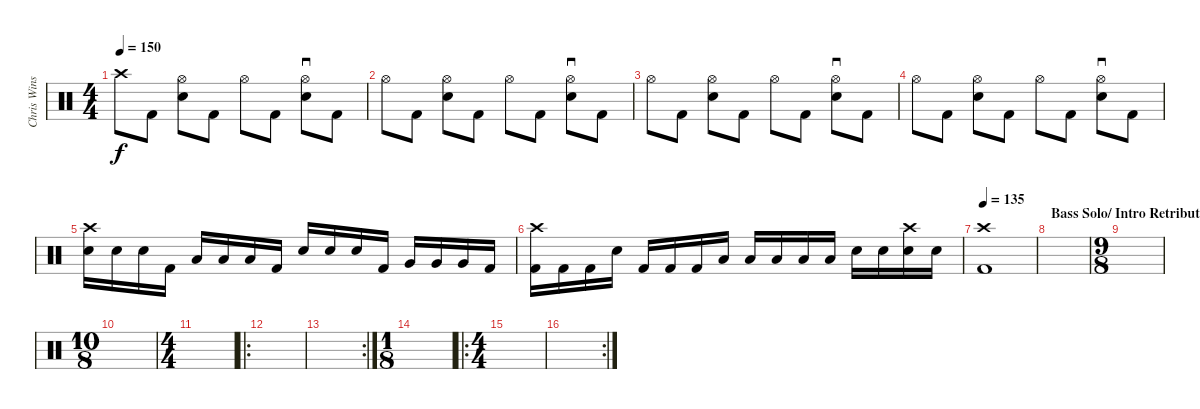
\track ("Chris Winship (Drums)" "Chris Wins") {instrument percussion}
\staff {score}
\articulation defaults
\ts (4 4)
\tempo 150
\clef neutral
\ks c "Crash high (hit)".8{dy f} "Kick (hit) 2".8
("Hi-Hat (open)" "Snare (hit) 2").8 "Kick (hit) 2".8 "Hi-Hat (open)".8 "Kick (hit) 2".8 ("Hi-Hat (open)" "Snare (hit) 2").8{sd} "Kick (hit) 2".8 |
"Hi-Hat (open)".8 "Kick (hit) 2".8 ("Hi-Hat (open)" "Snare (hit) 2").8 "Kick (hit) 2".8 "Hi-Hat (open)".8 "Kick (hit) 2".8 ("Hi-Hat (open)" "Snare (hit) 2").8{sd} "Kick (hit) 2".8 |
"Hi-Hat (open)".8 "Kick (hit) 2".8 ("Hi-Hat (open)" "Snare (hit) 2").8 "Kick (hit) 2".8 "Hi-Hat (open)".8 "Kick (hit) 2".8 ("Hi-Hat (open)" "Snare (hit) 2").8{sd} "Kick (hit) 2".8 |
"Hi-Hat (open)".8 "Kick (hit) 2".8 ("Hi-Hat (open)" "Snare (hit) 2").8 "Kick (hit) 2".8 "Hi-Hat (open)".8 "Kick (hit) 2".8 ("Hi-Hat (open)" "Snare (hit) 2").8{sd} "Kick (hit) 2".8 |
("Electric Snare (hit)" "Crash high (hit)").16 "Electric Snare (hit)".16 "Electric Snare (hit)".16 "Kick (hit) 2".16 "Low Floor Tom (hit)".16 "Low Floor Tom (hit)".16 "Low Floor Tom (hit)".16 "Kick (hit) 2".16 "Electric Snare (hit)".16 "Electric Snare (hit)".16 "Electric Snare (hit)".16 "Kick (hit) 2".16 "Very Low Tom (hit)".16 "Very Low Tom (hit)".16 "Very Low Tom (hit)".16 "Kick (hit) 2".16 |
("Crash high (hit)" "Kick (hit) 2").16 "Kick (hit) 2".16 "Kick (hit) 2".16 "Electric Snare (hit)".16 "Kick (hit) 2".16 "Kick (hit) 2".16 "Kick (hit) 2".16 "Low Floor Tom (hit)".16 "Low Floor Tom (hit)".16 "Low Tom (hit)".16 "Low Tom (hit)".16 "Low Tom (hit)".16 "Electric Snare (hit)".16 "Electric Snare (hit)".16 ("Crash high (hit)" "Electric Snare (hit)").16 "Electric Snare (hit)".16 |
\tempo 135
("Crash high (hit)" "Kick (hit) 2").1 |
\section ("" "Bass Solo/ Intro Retribution")
|
\ts (9 8)
|
\ts (10 8)
|
\ts (4 4)
|
\ro
|
\rc 2
|
\ts (1 8)
|
\ro
\ts (4 4)
|
\rc 2
